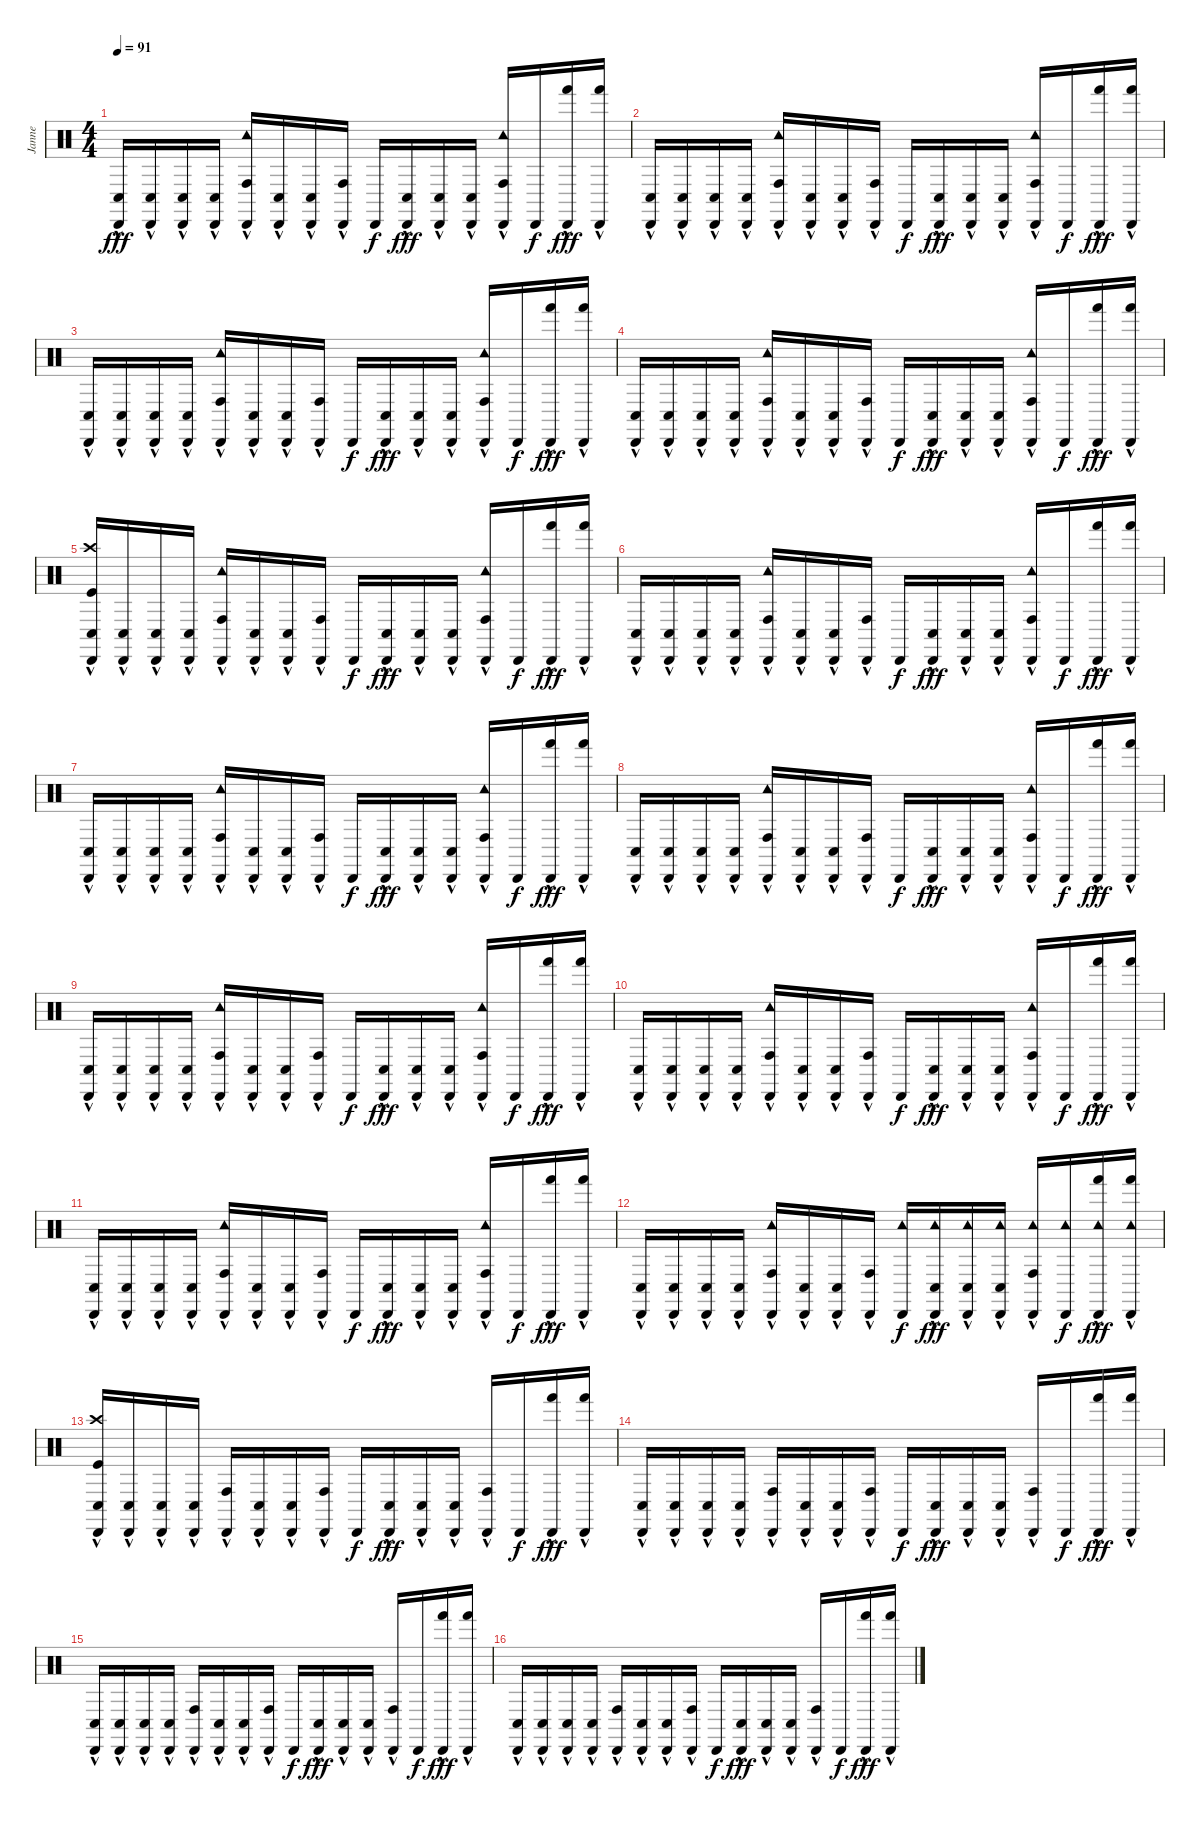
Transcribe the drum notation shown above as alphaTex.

\track ("Janne" "Janne") {instrument percussion}
\staff {score}
\articulation defaults
\ts (4 4)
\tempo 91
\clef neutral
\ks c
("Cabasa (hit)" "Conga low (hit)"{hac}).16{dy fff} ("Cabasa (hit)" "Conga low (hit)"{hac}).16 ("Cabasa (hit)" "Conga low (hit)"{hac}).16 ("Cabasa (hit)" "Conga low (hit)"{hac}).16 ("Cabasa (hit)" "Tambourine (hit)" "Conga high (hit)"{hac}).16 ("Cabasa (hit)" "Conga low (hit)"{hac}).16 ("Cabasa (hit)" "Conga low (hit)"{hac}).16 ("Cabasa (hit)" "Conga high (hit)"{hac}).16 "Cabasa (hit)".16{dy f} ("Cabasa (hit)" "Conga low (hit)"{hac}).16{dy fff} ("Cabasa (hit)" "Conga low (hit)"{hac}).16 ("Cabasa (hit)" "Conga low (hit)"{hac}).16 ("Cabasa (hit)" "Tambourine (hit)" "Conga high (hit)"{hac}).16 "Cabasa (hit)".16{dy f} ("Cabasa (hit)" "Hand (hit)"{hac}).16{dy fff} ("Cabasa (hit)" "Hand (hit)"{hac}).16 |
("Cabasa (hit)" "Conga low (hit)"{hac}).16 ("Cabasa (hit)" "Conga low (hit)"{hac}).16 ("Cabasa (hit)" "Conga low (hit)"{hac}).16 ("Cabasa (hit)" "Conga low (hit)"{hac}).16 ("Cabasa (hit)" "Tambourine (hit)" "Conga high (hit)"{hac}).16 ("Cabasa (hit)" "Conga low (hit)"{hac}).16 ("Cabasa (hit)" "Conga low (hit)"{hac}).16 ("Cabasa (hit)" "Conga high (hit)"{hac}).16 "Cabasa (hit)".16{dy f} ("Cabasa (hit)" "Conga low (hit)"{hac}).16{dy fff} ("Cabasa (hit)" "Conga low (hit)"{hac}).16 ("Cabasa (hit)" "Conga low (hit)"{hac}).16 ("Cabasa (hit)" "Tambourine (hit)" "Conga high (hit)"{hac}).16 "Cabasa (hit)".16{dy f} ("Cabasa (hit)" "Hand (hit)"{hac}).16{dy fff} ("Cabasa (hit)" "Hand (hit)"{hac}).16 |
("Cabasa (hit)" "Conga low (hit)"{hac}).16 ("Cabasa (hit)" "Conga low (hit)"{hac}).16 ("Cabasa (hit)" "Conga low (hit)"{hac}).16 ("Cabasa (hit)" "Conga low (hit)"{hac}).16 ("Cabasa (hit)" "Tambourine (hit)" "Conga high (hit)"{hac}).16 ("Cabasa (hit)" "Conga low (hit)"{hac}).16 ("Cabasa (hit)" "Conga low (hit)"{hac}).16 ("Cabasa (hit)" "Conga high (hit)"{hac}).16 "Cabasa (hit)".16{dy f} ("Cabasa (hit)" "Conga low (hit)"{hac}).16{dy fff} ("Cabasa (hit)" "Conga low (hit)"{hac}).16 ("Cabasa (hit)" "Conga low (hit)"{hac}).16 ("Cabasa (hit)" "Tambourine (hit)" "Conga high (hit)"{hac}).16 "Cabasa (hit)".16{dy f} ("Cabasa (hit)" "Hand (hit)"{hac}).16{dy fff} ("Cabasa (hit)" "Hand (hit)"{hac}).16 |
("Cabasa (hit)" "Conga low (hit)"{hac}).16 ("Cabasa (hit)" "Conga low (hit)"{hac}).16 ("Cabasa (hit)" "Conga low (hit)"{hac}).16 ("Cabasa (hit)" "Conga low (hit)"{hac}).16 ("Cabasa (hit)" "Tambourine (hit)" "Conga high (hit)"{hac}).16 ("Cabasa (hit)" "Conga low (hit)"{hac}).16 ("Cabasa (hit)" "Conga low (hit)"{hac}).16 ("Cabasa (hit)" "Conga high (hit)"{hac}).16 "Cabasa (hit)".16{dy f} ("Cabasa (hit)" "Conga low (hit)"{hac}).16{dy fff} ("Cabasa (hit)" "Conga low (hit)"{hac}).16 ("Cabasa (hit)" "Conga low (hit)"{hac}).16 ("Cabasa (hit)" "Tambourine (hit)" "Conga high (hit)"{hac}).16 "Cabasa (hit)".16{dy f} ("Cabasa (hit)" "Hand (hit)"{hac}).16{dy fff} ("Cabasa (hit)" "Hand (hit)"{hac}).16 |
("Cabasa (hit)" "Crash high (hit)" "Kick (hit)" "Conga low (hit)"{hac}).16 ("Cabasa (hit)" "Conga low (hit)"{hac}).16 ("Cabasa (hit)" "Conga low (hit)"{hac}).16 ("Cabasa (hit)" "Conga low (hit)"{hac}).16 ("Cabasa (hit)" "Tambourine (hit)" "Conga high (hit)"{hac}).16 ("Cabasa (hit)" "Conga low (hit)"{hac}).16 ("Cabasa (hit)" "Conga low (hit)"{hac}).16 ("Cabasa (hit)" "Conga high (hit)"{hac}).16 "Cabasa (hit)".16{dy f} ("Cabasa (hit)" "Conga low (hit)"{hac}).16{dy fff} ("Cabasa (hit)" "Conga low (hit)"{hac}).16 ("Cabasa (hit)" "Conga low (hit)"{hac}).16 ("Cabasa (hit)" "Tambourine (hit)" "Conga high (hit)"{hac}).16 "Cabasa (hit)".16{dy f} ("Cabasa (hit)" "Hand (hit)"{hac}).16{dy fff} ("Cabasa (hit)" "Hand (hit)"{hac}).16 |
("Cabasa (hit)" "Conga low (hit)"{hac}).16 ("Cabasa (hit)" "Conga low (hit)"{hac}).16 ("Cabasa (hit)" "Conga low (hit)"{hac}).16 ("Cabasa (hit)" "Conga low (hit)"{hac}).16 ("Cabasa (hit)" "Tambourine (hit)" "Conga high (hit)"{hac}).16 ("Cabasa (hit)" "Conga low (hit)"{hac}).16 ("Cabasa (hit)" "Conga low (hit)"{hac}).16 ("Cabasa (hit)" "Conga high (hit)"{hac}).16 "Cabasa (hit)".16{dy f} ("Cabasa (hit)" "Conga low (hit)"{hac}).16{dy fff} ("Cabasa (hit)" "Conga low (hit)"{hac}).16 ("Cabasa (hit)" "Conga low (hit)"{hac}).16 ("Cabasa (hit)" "Tambourine (hit)" "Conga high (hit)"{hac}).16 "Cabasa (hit)".16{dy f} ("Cabasa (hit)" "Hand (hit)"{hac}).16{dy fff} ("Cabasa (hit)" "Hand (hit)"{hac}).16 |
("Cabasa (hit)" "Conga low (hit)"{hac}).16 ("Cabasa (hit)" "Conga low (hit)"{hac}).16 ("Cabasa (hit)" "Conga low (hit)"{hac}).16 ("Cabasa (hit)" "Conga low (hit)"{hac}).16 ("Cabasa (hit)" "Tambourine (hit)" "Conga high (hit)"{hac}).16 ("Cabasa (hit)" "Conga low (hit)"{hac}).16 ("Cabasa (hit)" "Conga low (hit)"{hac}).16 ("Cabasa (hit)" "Conga high (hit)"{hac}).16 "Cabasa (hit)".16{dy f} ("Cabasa (hit)" "Conga low (hit)"{hac}).16{dy fff} ("Cabasa (hit)" "Conga low (hit)"{hac}).16 ("Cabasa (hit)" "Conga low (hit)"{hac}).16 ("Cabasa (hit)" "Tambourine (hit)" "Conga high (hit)"{hac}).16 "Cabasa (hit)".16{dy f} ("Cabasa (hit)" "Hand (hit)"{hac}).16{dy fff} ("Cabasa (hit)" "Hand (hit)"{hac}).16 |
("Cabasa (hit)" "Conga low (hit)"{hac}).16 ("Cabasa (hit)" "Conga low (hit)"{hac}).16 ("Cabasa (hit)" "Conga low (hit)"{hac}).16 ("Cabasa (hit)" "Conga low (hit)"{hac}).16 ("Cabasa (hit)" "Tambourine (hit)" "Conga high (hit)"{hac}).16 ("Cabasa (hit)" "Conga low (hit)"{hac}).16 ("Cabasa (hit)" "Conga low (hit)"{hac}).16 ("Cabasa (hit)" "Conga high (hit)"{hac}).16 "Cabasa (hit)".16{dy f} ("Cabasa (hit)" "Conga low (hit)"{hac}).16{dy fff} ("Cabasa (hit)" "Conga low (hit)"{hac}).16 ("Cabasa (hit)" "Conga low (hit)"{hac}).16 ("Cabasa (hit)" "Tambourine (hit)" "Conga high (hit)"{hac}).16 "Cabasa (hit)".16{dy f} ("Cabasa (hit)" "Hand (hit)"{hac}).16{dy fff} ("Cabasa (hit)" "Hand (hit)"{hac}).16 |
("Cabasa (hit)" "Conga low (hit)"{hac}).16 ("Cabasa (hit)" "Conga low (hit)"{hac}).16 ("Cabasa (hit)" "Conga low (hit)"{hac}).16 ("Cabasa (hit)" "Conga low (hit)"{hac}).16 ("Cabasa (hit)" "Tambourine (hit)" "Conga high (hit)"{hac}).16 ("Cabasa (hit)" "Conga low (hit)"{hac}).16 ("Cabasa (hit)" "Conga low (hit)"{hac}).16 ("Cabasa (hit)" "Conga high (hit)"{hac}).16 "Cabasa (hit)".16{dy f} ("Cabasa (hit)" "Conga low (hit)"{hac}).16{dy fff} ("Cabasa (hit)" "Conga low (hit)"{hac}).16 ("Cabasa (hit)" "Conga low (hit)"{hac}).16 ("Cabasa (hit)" "Tambourine (hit)" "Conga high (hit)"{hac}).16 "Cabasa (hit)".16{dy f} ("Cabasa (hit)" "Hand (hit)"{hac}).16{dy fff} ("Cabasa (hit)" "Hand (hit)"{hac}).16 |
("Cabasa (hit)" "Conga low (hit)"{hac}).16 ("Cabasa (hit)" "Conga low (hit)"{hac}).16 ("Cabasa (hit)" "Conga low (hit)"{hac}).16 ("Cabasa (hit)" "Conga low (hit)"{hac}).16 ("Cabasa (hit)" "Tambourine (hit)" "Conga high (hit)"{hac}).16 ("Cabasa (hit)" "Conga low (hit)"{hac}).16 ("Cabasa (hit)" "Conga low (hit)"{hac}).16 ("Cabasa (hit)" "Conga high (hit)"{hac}).16 "Cabasa (hit)".16{dy f} ("Cabasa (hit)" "Conga low (hit)"{hac}).16{dy fff} ("Cabasa (hit)" "Conga low (hit)"{hac}).16 ("Cabasa (hit)" "Conga low (hit)"{hac}).16 ("Cabasa (hit)" "Tambourine (hit)" "Conga high (hit)"{hac}).16 "Cabasa (hit)".16{dy f} ("Cabasa (hit)" "Hand (hit)"{hac}).16{dy fff} ("Cabasa (hit)" "Hand (hit)"{hac}).16 |
("Cabasa (hit)" "Conga low (hit)"{hac}).16 ("Cabasa (hit)" "Conga low (hit)"{hac}).16 ("Cabasa (hit)" "Conga low (hit)"{hac}).16 ("Cabasa (hit)" "Conga low (hit)"{hac}).16 ("Cabasa (hit)" "Tambourine (hit)" "Conga high (hit)"{hac}).16 ("Cabasa (hit)" "Conga low (hit)"{hac}).16 ("Cabasa (hit)" "Conga low (hit)"{hac}).16 ("Cabasa (hit)" "Conga high (hit)"{hac}).16 "Cabasa (hit)".16{dy f} ("Cabasa (hit)" "Conga low (hit)"{hac}).16{dy fff} ("Cabasa (hit)" "Conga low (hit)"{hac}).16 ("Cabasa (hit)" "Conga low (hit)"{hac}).16 ("Cabasa (hit)" "Tambourine (hit)" "Conga high (hit)"{hac}).16 "Cabasa (hit)".16{dy f} ("Cabasa (hit)" "Hand (hit)"{hac}).16{dy fff} ("Cabasa (hit)" "Hand (hit)"{hac}).16 |
("Cabasa (hit)" "Conga low (hit)"{hac}).16 ("Cabasa (hit)" "Conga low (hit)"{hac}).16 ("Cabasa (hit)" "Conga low (hit)"{hac}).16 ("Cabasa (hit)" "Conga low (hit)"{hac}).16 ("Cabasa (hit)" "Tambourine (hit)" "Conga high (hit)"{hac}).16 ("Cabasa (hit)" "Conga low (hit)"{hac}).16 ("Cabasa (hit)" "Conga low (hit)"{hac}).16 ("Cabasa (hit)" "Conga high (hit)"{hac}).16 ("Cabasa (hit)" "Tambourine (hit)").16{dy f} ("Cabasa (hit)" "Tambourine (hit)" "Conga low (hit)"{hac}).16{dy fff} ("Cabasa (hit)" "Tambourine (hit)" "Conga low (hit)"{hac}).16 ("Cabasa (hit)" "Tambourine (hit)" "Conga low (hit)"{hac}).16 ("Cabasa (hit)" "Tambourine (hit)" "Conga high (hit)"{hac}).16 ("Cabasa (hit)" "Tambourine (hit)").16{dy f} ("Cabasa (hit)" "Tambourine (hit)" "Hand (hit)"{hac}).16{dy fff} ("Cabasa (hit)" "Tambourine (hit)" "Hand (hit)"{hac}).16 |
("Cabasa (hit)" "Crash high (hit)" "Kick (hit)" "Conga low (hit)"{hac}).16 ("Cabasa (hit)" "Conga low (hit)"{hac}).16 ("Cabasa (hit)" "Conga low (hit)"{hac}).16 ("Cabasa (hit)" "Conga low (hit)"{hac}).16 ("Cabasa (hit)" "Conga high (hit)"{hac}).16 ("Cabasa (hit)" "Conga low (hit)"{hac}).16 ("Cabasa (hit)" "Conga low (hit)"{hac}).16 ("Cabasa (hit)" "Conga high (hit)"{hac}).16 "Cabasa (hit)".16{dy f} ("Cabasa (hit)" "Conga low (hit)"{hac}).16{dy fff} ("Cabasa (hit)" "Conga low (hit)"{hac}).16 ("Cabasa (hit)" "Conga low (hit)"{hac}).16 ("Cabasa (hit)" "Conga high (hit)"{hac}).16 "Cabasa (hit)".16{dy f} ("Cabasa (hit)" "Hand (hit)"{hac}).16{dy fff} ("Cabasa (hit)" "Hand (hit)"{hac}).16 |
("Cabasa (hit)" "Conga low (hit)"{hac}).16 ("Cabasa (hit)" "Conga low (hit)"{hac}).16 ("Cabasa (hit)" "Conga low (hit)"{hac}).16 ("Cabasa (hit)" "Conga low (hit)"{hac}).16 ("Cabasa (hit)" "Conga high (hit)"{hac}).16 ("Cabasa (hit)" "Conga low (hit)"{hac}).16 ("Cabasa (hit)" "Conga low (hit)"{hac}).16 ("Cabasa (hit)" "Conga high (hit)"{hac}).16 "Cabasa (hit)".16{dy f} ("Cabasa (hit)" "Conga low (hit)"{hac}).16{dy fff} ("Cabasa (hit)" "Conga low (hit)"{hac}).16 ("Cabasa (hit)" "Conga low (hit)"{hac}).16 ("Cabasa (hit)" "Conga high (hit)"{hac}).16 "Cabasa (hit)".16{dy f} ("Cabasa (hit)" "Hand (hit)"{hac}).16{dy fff} ("Cabasa (hit)" "Hand (hit)"{hac}).16 |
("Cabasa (hit)" "Conga low (hit)"{hac}).16 ("Cabasa (hit)" "Conga low (hit)"{hac}).16 ("Cabasa (hit)" "Conga low (hit)"{hac}).16 ("Cabasa (hit)" "Conga low (hit)"{hac}).16 ("Cabasa (hit)" "Conga high (hit)"{hac}).16 ("Cabasa (hit)" "Conga low (hit)"{hac}).16 ("Cabasa (hit)" "Conga low (hit)"{hac}).16 ("Cabasa (hit)" "Conga high (hit)"{hac}).16 "Cabasa (hit)".16{dy f} ("Cabasa (hit)" "Conga low (hit)"{hac}).16{dy fff} ("Cabasa (hit)" "Conga low (hit)"{hac}).16 ("Cabasa (hit)" "Conga low (hit)"{hac}).16 ("Cabasa (hit)" "Conga high (hit)"{hac}).16 "Cabasa (hit)".16{dy f} ("Cabasa (hit)" "Hand (hit)"{hac}).16{dy fff} ("Cabasa (hit)" "Hand (hit)"{hac}).16 |
("Cabasa (hit)" "Conga low (hit)"{hac}).16 ("Cabasa (hit)" "Conga low (hit)"{hac}).16 ("Cabasa (hit)" "Conga low (hit)"{hac}).16 ("Cabasa (hit)" "Conga low (hit)"{hac}).16 ("Cabasa (hit)" "Conga high (hit)"{hac}).16 ("Cabasa (hit)" "Conga low (hit)"{hac}).16 ("Cabasa (hit)" "Conga low (hit)"{hac}).16 ("Cabasa (hit)" "Conga high (hit)"{hac}).16 "Cabasa (hit)".16{dy f} ("Cabasa (hit)" "Conga low (hit)"{hac}).16{dy fff} ("Cabasa (hit)" "Conga low (hit)"{hac}).16 ("Cabasa (hit)" "Conga low (hit)"{hac}).16 ("Cabasa (hit)" "Conga high (hit)"{hac}).16 "Cabasa (hit)".16{dy f} ("Cabasa (hit)" "Hand (hit)"{hac}).16{dy fff} ("Cabasa (hit)" "Hand (hit)"{hac}).16
